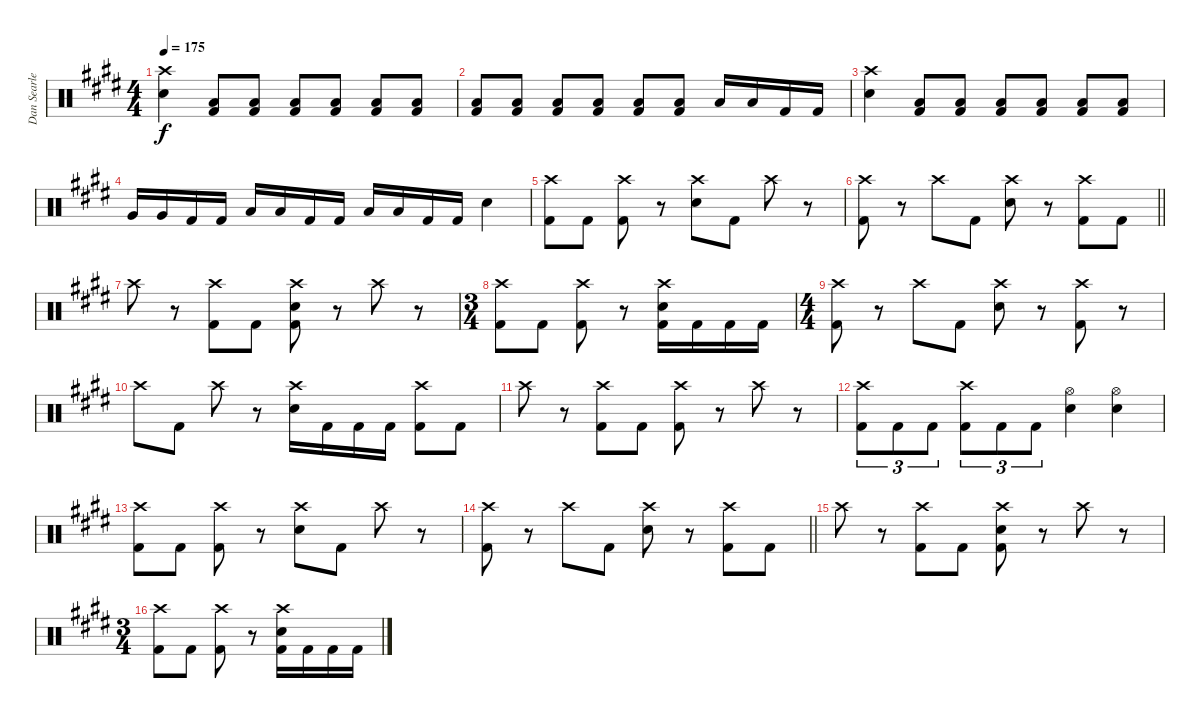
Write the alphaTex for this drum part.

\track ("Dan Searle" "Dan Searle") {instrument percussion}
\staff {score}
\articulation defaults
\ts (4 4)
\tempo 175
\clef neutral
\ks e
("Crash high (hit)" "Snare (hit) 2").4{dy f} ("Low Floor Tom (hit)" "Kick (hit) 2").8 ("Low Floor Tom (hit)" "Kick (hit) 2").8 ("Low Floor Tom (hit)" "Kick (hit) 2").8 ("Low Floor Tom (hit)" "Kick (hit) 2").8 ("Low Floor Tom (hit)" "Kick (hit) 2").8 ("Low Floor Tom (hit)" "Kick (hit) 2").8 |
("Low Floor Tom (hit)" "Kick (hit) 2").8 ("Low Floor Tom (hit)" "Kick (hit) 2").8 ("Low Floor Tom (hit)" "Kick (hit) 2").8 ("Low Floor Tom (hit)" "Kick (hit) 2").8 ("Low Floor Tom (hit)" "Kick (hit) 2").8 ("Low Floor Tom (hit)" "Kick (hit) 2").8 "Low Floor Tom (hit)".16 "Low Floor Tom (hit)".16 "Kick (hit) 2".16 "Kick (hit) 2".16 |
("Crash high (hit)" "Snare (hit) 2").4 ("Low Floor Tom (hit)" "Kick (hit) 2").8 ("Low Floor Tom (hit)" "Kick (hit) 2").8 ("Low Floor Tom (hit)" "Kick (hit) 2").8 ("Low Floor Tom (hit)" "Kick (hit) 2").8 ("Low Floor Tom (hit)" "Kick (hit) 2").8 ("Low Floor Tom (hit)" "Kick (hit) 2").8 |
"Very Low Tom (hit)".16 "Very Low Tom (hit)".16 "Kick (hit) 2".16 "Kick (hit) 2".16 "Low Floor Tom (hit)".16 "Low Floor Tom (hit)".16 "Kick (hit) 2".16 "Kick (hit) 2".16 "Low Floor Tom (hit)".16 "Low Floor Tom (hit)".16 "Kick (hit) 2".16 "Kick (hit) 2".16 "Snare (hit) 2".4 |
("Crash high (hit)" "Kick (hit) 2").8 "Kick (hit) 2".8 ("Crash high (hit)" "Kick (hit) 2").8 r.8 ("Crash high (hit)" "Snare (hit) 2").8 "Kick (hit) 2".8 "Crash high (hit)".8 r.8 |
\barLineRight lightlight
("Crash high (hit)" "Kick (hit) 2").8 r.8 "Crash high (hit)".8 "Kick (hit) 2".8 ("Crash high (hit)" "Snare (hit) 2").8 r.8 ("Crash high (hit)" "Kick (hit) 2").8 "Kick (hit) 2".8 |
\section ("" "")
"Crash high (hit)".8 r.8 ("Crash high (hit)" "Kick (hit) 2").8 "Kick (hit) 2".8 ("Crash high (hit)" "Snare (hit) 2" "Kick (hit) 2").8 r.8 "Crash high (hit)".8 r.8 |
\ts (3 4)
("Crash high (hit)" "Kick (hit) 2").8 "Kick (hit) 2".8 ("Crash high (hit)" "Kick (hit) 2").8 r.8 ("Crash high (hit)" "Snare (hit) 2" "Kick (hit) 2").16 "Kick (hit) 2".16 "Kick (hit) 2".16 "Kick (hit) 2".16 |
\ts (4 4)
("Crash high (hit)" "Kick (hit) 2").8 r.8 "Crash high (hit)".8 "Kick (hit) 2".8 ("Crash high (hit)" "Snare (hit) 2").8 r.8 ("Crash high (hit)" "Kick (hit) 2").8 r.8 |
"Crash high (hit)".8 "Kick (hit) 2".8 "Crash high (hit)".8 r.8 ("Crash high (hit)" "Snare (hit) 2").16 "Kick (hit) 2".16 "Kick (hit) 2".16 "Kick (hit) 2".16 ("Crash high (hit)" "Kick (hit) 2").8 "Kick (hit) 2".8 |
"Crash high (hit)".8 r.8 ("Crash high (hit)" "Kick (hit) 2").8 "Kick (hit) 2".8 ("Crash high (hit)" "Kick (hit) 2").8 r.8 "Crash high (hit)".8 r.8 |
("Crash high (hit)" "Kick (hit) 2").8{tu (3 2)} "Kick (hit) 2".8{tu (3 2)} "Kick (hit) 2".8{tu (3 2)} ("Crash high (hit)" "Kick (hit) 2").8{tu (3 2)} "Kick (hit) 2".8{tu (3 2)} "Kick (hit) 2".8{tu (3 2)} ("Hi-Hat (open)" "Snare (hit) 2").4 ("Hi-Hat (open)" "Snare (hit) 2").4 |
("Crash high (hit)" "Kick (hit) 2").8 "Kick (hit) 2".8 ("Crash high (hit)" "Kick (hit) 2").8 r.8 ("Crash high (hit)" "Snare (hit) 2").8 "Kick (hit) 2".8 "Crash high (hit)".8 r.8 |
\barLineRight lightlight
("Crash high (hit)" "Kick (hit) 2").8 r.8 "Crash high (hit)".8 "Kick (hit) 2".8 ("Crash high (hit)" "Snare (hit) 2").8 r.8 ("Crash high (hit)" "Kick (hit) 2").8 "Kick (hit) 2".8 |
"Crash high (hit)".8 r.8 ("Crash high (hit)" "Kick (hit) 2").8 "Kick (hit) 2".8 ("Crash high (hit)" "Snare (hit) 2" "Kick (hit) 2").8 r.8 "Crash high (hit)".8 r.8 |
\ts (3 4)
("Crash high (hit)" "Kick (hit) 2").8 "Kick (hit) 2".8 ("Crash high (hit)" "Kick (hit) 2").8 r.8 ("Crash high (hit)" "Snare (hit) 2" "Kick (hit) 2").16 "Kick (hit) 2".16 "Kick (hit) 2".16 "Kick (hit) 2".16
